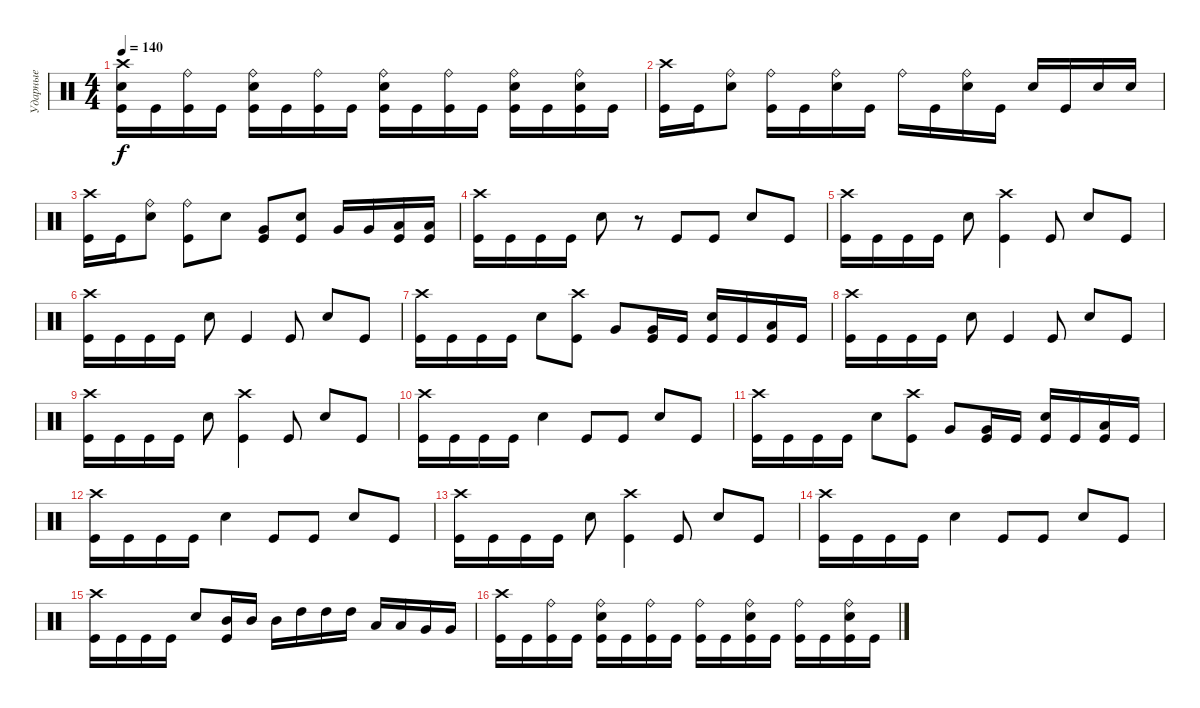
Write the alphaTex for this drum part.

\track ("Ударные" "Ударные") {instrument percussion}
\staff {score}
\articulation defaults
\ts (4 4)
\tempo 140
\clef neutral
\ks c
("Crash high (hit)" "Electric Snare (hit)" "Kick (hit)").16{dy f} "Kick (hit)".16 ("Ride (bell)" "Kick (hit)").16 "Kick (hit)".16 ("Ride (bell)" "Electric Snare (hit)" "Kick (hit)").16 "Kick (hit)".16 ("Ride (bell)" "Kick (hit)").16 "Kick (hit)".16 ("Ride (bell)" "Electric Snare (hit)" "Kick (hit)").16 "Kick (hit)".16 ("Ride (bell)" "Kick (hit)").16 "Kick (hit)".16 ("Ride (bell)" "Electric Snare (hit)" "Kick (hit)").16 "Kick (hit)".16 ("Ride (bell)" "Electric Snare (hit)" "Kick (hit)").16 "Kick (hit)".16 |
("Crash high (hit)" "Kick (hit)").16 "Kick (hit)".16 ("Ride (bell)" "Electric Snare (hit)").8 ("Ride (bell)" "Kick (hit)").16 "Kick (hit)".16 ("Ride (bell)" "Electric Snare (hit)").16 "Kick (hit)".16 "Ride (bell)".16 "Kick (hit)".16 ("Ride (bell)" "Electric Snare (hit)").16 "Kick (hit)".16 "Electric Snare (hit)".16 "Kick (hit)".16 "Electric Snare (hit)".16 "Electric Snare (hit)".16 |
("Crash high (hit)" "Kick (hit)").16 "Kick (hit)".16 ("Ride (bell)" "Electric Snare (hit)").8 ("Ride (bell)" "Kick (hit)").8 "Electric Snare (hit)".8 ("Very Low Tom (hit)" "Kick (hit)").8 ("Electric Snare (hit)" "Kick (hit)").8 "Very Low Tom (hit)".16 "Very Low Tom (hit)".16 ("Low Tom (hit)" "Kick (hit)").16 ("Low Tom (hit)" "Kick (hit)").16 |
("Crash high (hit)" "Kick (hit)").16 "Kick (hit)".16 "Kick (hit)".16 "Kick (hit)".16 "Electric Snare (hit)".8 r.8 "Kick (hit)".8 "Kick (hit)".8 "Electric Snare (hit)".8 "Kick (hit)".8 |
("Crash high (hit)" "Kick (hit)").16 "Kick (hit)".16 "Kick (hit)".16 "Kick (hit)".16 "Electric Snare (hit)".8 ("Crash high (hit)" "Kick (hit)").4 "Kick (hit)".8 "Electric Snare (hit)".8 "Kick (hit)".8 |
("Crash high (hit)" "Kick (hit)").16 "Kick (hit)".16 "Kick (hit)".16 "Kick (hit)".16 "Electric Snare (hit)".8 "Kick (hit)".4 "Kick (hit)".8 "Electric Snare (hit)".8 "Kick (hit)".8 |
("Crash high (hit)" "Kick (hit)").16 "Kick (hit)".16 "Kick (hit)".16 "Kick (hit)".16 "Electric Snare (hit)".8 ("Crash high (hit)" "Kick (hit)").8 "Very Low Tom (hit)".8 ("Very Low Tom (hit)" "Kick (hit)").16 "Kick (hit)".16 ("Electric Snare (hit)" "Kick (hit)").16 "Kick (hit)".16 ("Low Tom (hit)" "Kick (hit)").16 "Kick (hit)".16 |
("Crash high (hit)" "Kick (hit)").16 "Kick (hit)".16 "Kick (hit)".16 "Kick (hit)".16 "Electric Snare (hit)".8 "Kick (hit)".4 "Kick (hit)".8 "Electric Snare (hit)".8 "Kick (hit)".8 |
("Crash high (hit)" "Kick (hit)").16 "Kick (hit)".16 "Kick (hit)".16 "Kick (hit)".16 "Electric Snare (hit)".8 ("Crash high (hit)" "Kick (hit)").4 "Kick (hit)".8 "Electric Snare (hit)".8 "Kick (hit)".8 |
("Crash high (hit)" "Kick (hit)").16 "Kick (hit)".16 "Kick (hit)".16 "Kick (hit)".16 "Electric Snare (hit)".4 "Kick (hit)".8 "Kick (hit)".8 "Electric Snare (hit)".8 "Kick (hit)".8 |
("Crash high (hit)" "Kick (hit)").16 "Kick (hit)".16 "Kick (hit)".16 "Kick (hit)".16 "Electric Snare (hit)".8 ("Crash high (hit)" "Kick (hit)").8 "Very Low Tom (hit)".8 ("Very Low Tom (hit)" "Kick (hit)").16 "Kick (hit)".16 ("Electric Snare (hit)" "Kick (hit)").16 "Kick (hit)".16 ("Low Tom (hit)" "Kick (hit)").16 "Kick (hit)".16 |
("Crash high (hit)" "Kick (hit)").16 "Kick (hit)".16 "Kick (hit)".16 "Kick (hit)".16 "Electric Snare (hit)".4 "Kick (hit)".8 "Kick (hit)".8 "Electric Snare (hit)".8 "Kick (hit)".8 |
("Crash high (hit)" "Kick (hit)").16 "Kick (hit)".16 "Kick (hit)".16 "Kick (hit)".16 "Electric Snare (hit)".8 ("Crash high (hit)" "Kick (hit)").4 "Kick (hit)".8 "Electric Snare (hit)".8 "Kick (hit)".8 |
("Crash high (hit)" "Kick (hit)").16 "Kick (hit)".16 "Kick (hit)".16 "Kick (hit)".16 "Electric Snare (hit)".4 "Kick (hit)".8 "Kick (hit)".8 "Electric Snare (hit)".8 "Kick (hit)".8 |
("Crash high (hit)" "Kick (hit)").16 "Kick (hit)".16 "Kick (hit)".16 "Kick (hit)".16 "Electric Snare (hit)".8 ("Mid Tom (hit)" "Kick (hit)").16 "Mid Tom (hit)".16 "Mid Tom (hit)".16 "High Tom (hit)".16 "High Tom (hit)".16 "High Tom (hit)".16 "Low Tom (hit)".16 "Low Tom (hit)".16 "Very Low Tom (hit)".16 "Very Low Tom (hit)".16 |
("Crash high (hit)" "Kick (hit)").16 "Kick (hit)".16 ("Ride (bell)" "Kick (hit)").16 "Kick (hit)".16 ("Ride (bell)" "Electric Snare (hit)" "Kick (hit)").16 "Kick (hit)".16 ("Ride (bell)" "Kick (hit)").16 "Kick (hit)".16 ("Ride (bell)" "Kick (hit)").16 "Kick (hit)".16 ("Ride (bell)" "Electric Snare (hit)" "Kick (hit)").16 "Kick (hit)".16 ("Ride (bell)" "Kick (hit)").16 "Kick (hit)".16 ("Ride (bell)" "Electric Snare (hit)" "Kick (hit)").16 "Kick (hit)".16
